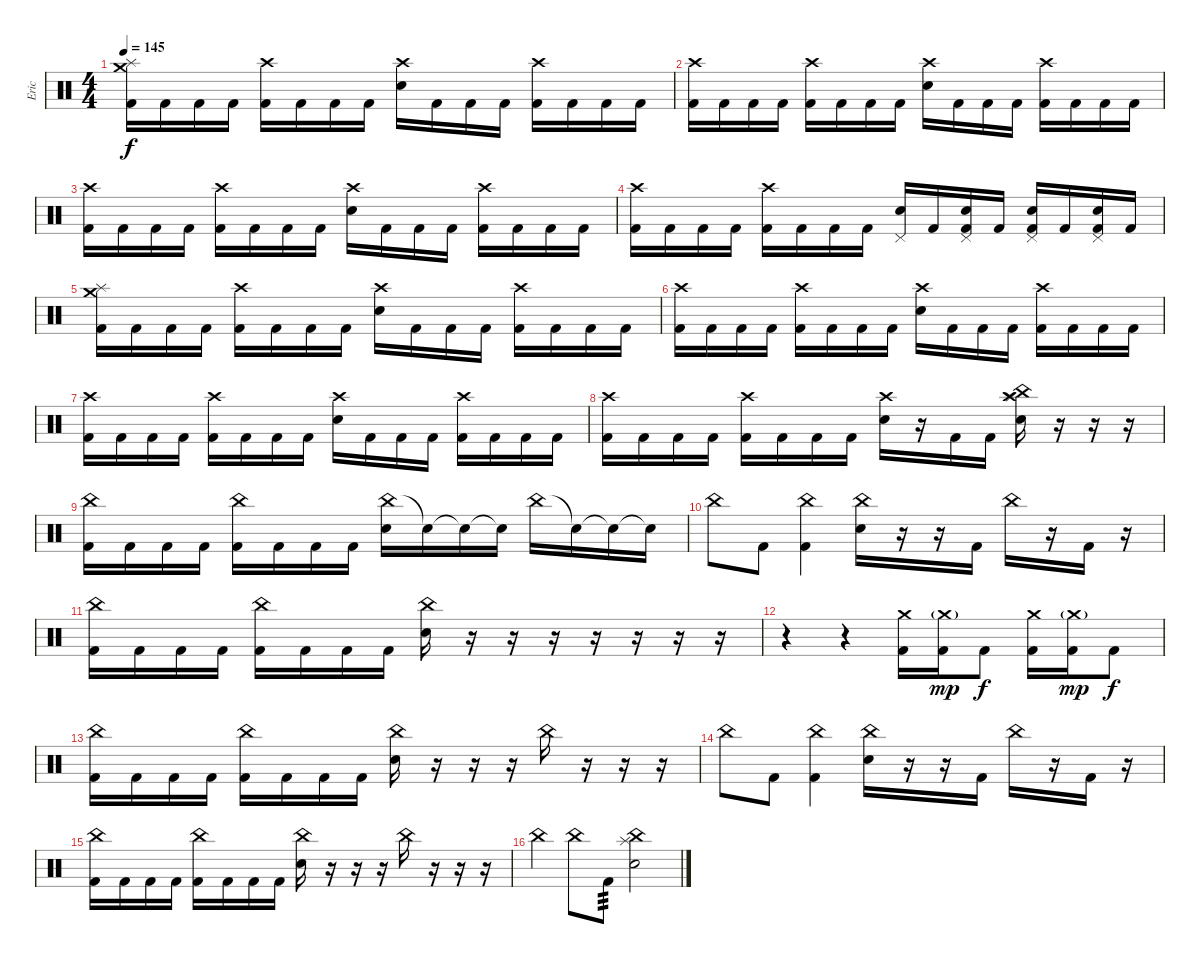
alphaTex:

\track ("Eric" "Eric") {instrument percussion}
\staff {score}
\articulation defaults
\ts (4 4)
\tempo 145
\clef neutral
\ks c
("Crash medium (hit)" "Splash (hit)" "Kick (hit) 2").16{dy f} "Kick (hit) 2".16 "Kick (hit) 2".16 "Kick (hit) 2".16 ("Crash high (hit)" "Kick (hit) 2").16 "Kick (hit) 2".16 "Kick (hit) 2".16 "Kick (hit) 2".16 ("Crash high (hit)" "Electric Snare (hit)").16 "Kick (hit) 2".16 "Kick (hit) 2".16 "Kick (hit) 2".16 ("Crash high (hit)" "Kick (hit) 2").16 "Kick (hit) 2".16 "Kick (hit) 2".16 "Kick (hit) 2".16 |
("Crash high (hit)" "Kick (hit) 2").16 "Kick (hit) 2".16 "Kick (hit) 2".16 "Kick (hit) 2".16 ("Crash high (hit)" "Kick (hit) 2").16 "Kick (hit) 2".16 "Kick (hit) 2".16 "Kick (hit) 2".16 ("Crash high (hit)" "Electric Snare (hit)").16 "Kick (hit) 2".16 "Kick (hit) 2".16 "Kick (hit) 2".16 ("Crash high (hit)" "Kick (hit) 2").16 "Kick (hit) 2".16 "Kick (hit) 2".16 "Kick (hit) 2".16 |
("Crash high (hit)" "Kick (hit) 2").16 "Kick (hit) 2".16 "Kick (hit) 2".16 "Kick (hit) 2".16 ("Crash high (hit)" "Kick (hit) 2").16 "Kick (hit) 2".16 "Kick (hit) 2".16 "Kick (hit) 2".16 ("Crash high (hit)" "Electric Snare (hit)").16 "Kick (hit) 2".16 "Kick (hit) 2".16 "Kick (hit) 2".16 ("Crash high (hit)" "Kick (hit) 2").16 "Kick (hit) 2".16 "Kick (hit) 2".16 "Kick (hit) 2".16 |
("Crash high (hit)" "Kick (hit) 2").16 "Kick (hit) 2".16 "Kick (hit) 2".16 "Kick (hit) 2".16 ("Crash high (hit)" "Kick (hit) 2").16 "Kick (hit) 2".16 "Kick (hit) 2".16 "Kick (hit) 2".16 ("Pedal Hi-Hat (hit)" "Electric Snare (hit)").16 "Kick (hit) 2".16 ("Pedal Hi-Hat (hit)" "Electric Snare (hit)" "Kick (hit) 2").16 "Kick (hit) 2".16 ("Pedal Hi-Hat (hit)" "Electric Snare (hit)" "Kick (hit) 2").16 "Kick (hit) 2".16 ("Pedal Hi-Hat (hit)" "Electric Snare (hit)" "Kick (hit) 2").16 "Kick (hit) 2".16 |
("Crash medium (hit)" "Splash (hit)" "Kick (hit) 2").16 "Kick (hit) 2".16 "Kick (hit) 2".16 "Kick (hit) 2".16 ("Crash high (hit)" "Kick (hit) 2").16 "Kick (hit) 2".16 "Kick (hit) 2".16 "Kick (hit) 2".16 ("Crash high (hit)" "Electric Snare (hit)").16 "Kick (hit) 2".16 "Kick (hit) 2".16 "Kick (hit) 2".16 ("Crash high (hit)" "Kick (hit) 2").16 "Kick (hit) 2".16 "Kick (hit) 2".16 "Kick (hit) 2".16 |
("Crash high (hit)" "Kick (hit) 2").16 "Kick (hit) 2".16 "Kick (hit) 2".16 "Kick (hit) 2".16 ("Crash high (hit)" "Kick (hit) 2").16 "Kick (hit) 2".16 "Kick (hit) 2".16 "Kick (hit) 2".16 ("Crash high (hit)" "Electric Snare (hit)").16 "Kick (hit) 2".16 "Kick (hit) 2".16 "Kick (hit) 2".16 ("Crash high (hit)" "Kick (hit) 2").16 "Kick (hit) 2".16 "Kick (hit) 2".16 "Kick (hit) 2".16 |
("Crash high (hit)" "Kick (hit) 2").16 "Kick (hit) 2".16 "Kick (hit) 2".16 "Kick (hit) 2".16 ("Crash high (hit)" "Kick (hit) 2").16 "Kick (hit) 2".16 "Kick (hit) 2".16 "Kick (hit) 2".16 ("Crash high (hit)" "Electric Snare (hit)").16 "Kick (hit) 2".16 "Kick (hit) 2".16 "Kick (hit) 2".16 ("Crash high (hit)" "Kick (hit) 2").16 "Kick (hit) 2".16 "Kick (hit) 2".16 "Kick (hit) 2".16 |
("Crash high (hit)" "Kick (hit) 2").16 "Kick (hit) 2".16 "Kick (hit) 2".16 "Kick (hit) 2".16 ("Crash high (hit)" "Kick (hit) 2").16 "Kick (hit) 2".16 "Kick (hit) 2".16 "Kick (hit) 2".16 ("Crash high (hit)" "Electric Snare (hit)").16 r.16 "Kick (hit) 2".16 "Kick (hit) 2".16 ("Crash high (hit)" "China (hit)" "Splash (hit)" "Electric Snare (hit)").16 r.16 r.16 r.16 |
("China (hit)" "Kick (hit) 2").16 "Kick (hit) 2".16 "Kick (hit) 2".16 "Kick (hit) 2".16 ("China (hit)" "Kick (hit) 2").16 "Kick (hit) 2".16 "Kick (hit) 2".16 "Kick (hit) 2".16 ("China (hit)" "Electric Snare (hit)").16 "Snare (hit)"{t}.16 "Snare (hit)"{t}.16 "Snare (hit)"{t}.16 "China (hit)".16 "Snare (hit)"{t}.16 "Snare (hit)"{t}.16 "Snare (hit)"{t}.16 |
"China (hit)".8 "Kick (hit) 2".8 ("China (hit)" "Kick (hit) 2").4 ("China (hit)" "Electric Snare (hit)").16 r.16 r.16 "Kick (hit) 2".16 "China (hit)".16 r.16 "Kick (hit) 2".16 r.16 |
("China (hit)" "Kick (hit) 2").16 "Kick (hit) 2".16 "Kick (hit) 2".16 "Kick (hit) 2".16 ("China (hit)" "Kick (hit) 2").16 "Kick (hit) 2".16 "Kick (hit) 2".16 "Kick (hit) 2".16 ("China (hit)" "Electric Snare (hit)").16 r.16 r.16 r.16 r.16 r.16 r.16 r.16 |
r.4 r.4 ("Crash medium (hit)" "Kick (hit) 2").16 ("Crash medium (hit)"{g} "Kick (hit) 2").16{dy mp} "Kick (hit) 2".8{dy f} ("Crash medium (hit)" "Kick (hit) 2").16 ("Crash medium (hit)"{g} "Kick (hit) 2").16{dy mp} "Kick (hit) 2".8{dy f} |
("China (hit)" "Kick (hit) 2").16 "Kick (hit) 2".16 "Kick (hit) 2".16 "Kick (hit) 2".16 ("China (hit)" "Kick (hit) 2").16 "Kick (hit) 2".16 "Kick (hit) 2".16 "Kick (hit) 2".16 ("China (hit)" "Electric Snare (hit)").16 r.16 r.16 r.16 "China (hit)".16 r.16 r.16 r.16 |
"China (hit)".8 "Kick (hit) 2".8 ("China (hit)" "Kick (hit) 2").4 ("China (hit)" "Electric Snare (hit)").16 r.16 r.16 "Kick (hit) 2".16 "China (hit)".16 r.16 "Kick (hit) 2".16 r.16 |
("China (hit)" "Kick (hit) 2").16 "Kick (hit) 2".16 "Kick (hit) 2".16 "Kick (hit) 2".16 ("China (hit)" "Kick (hit) 2").16 "Kick (hit) 2".16 "Kick (hit) 2".16 "Kick (hit) 2".16 ("China (hit)" "Electric Snare (hit)").16 r.16 r.16 r.16 "China (hit)".16 r.16 r.16 r.16 |
"China (hit)".4 "China (hit)".8 "Kick (hit) 2".8{tp 3} ("Splash (hit)" "China (hit)" "Electric Snare (hit)").2
